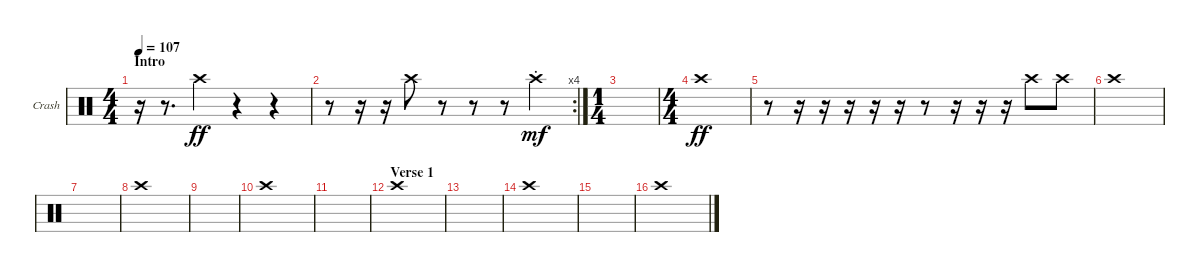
\bracketExtendMode groupsimilarinstruments
\firstSystemTrackNameOrientation horizontal
\otherSystemsTrackNameOrientation horizontal
\track ("Crash" "Crash") {instrument percussion}
\staff {score}
\articulation defaults
\ts (4 4)
\section ("" "Intro")
\tempo 107
\clef neutral
\ks c
r.16{dy ff} r.8{d} "Crash high (hit)".4 r.4 r.4 |
\rc 4
r.8 r.16 r.16 "Crash high (hit)".8 r.8 r.8 r.8 "Crash high (hit)"{st}.4{dy mf} |
\ts (1 4)
|
\ts (4 4)
"Crash high (hit)".1{dy ff} |
r.8 r.16 r.16 r.16 r.16 r.16 r.8 r.16 r.16 r.16 "Crash high (hit)".8 "Crash high (hit)".8 |
"Crash high (hit)".1 |
|
"Crash high (hit)".1 |
|
"Crash high (hit)".1 |
|
\section ("" "Verse 1")
"Crash high (hit)".1 |
|
"Crash high (hit)".1 |
|
"Crash high (hit)".1
